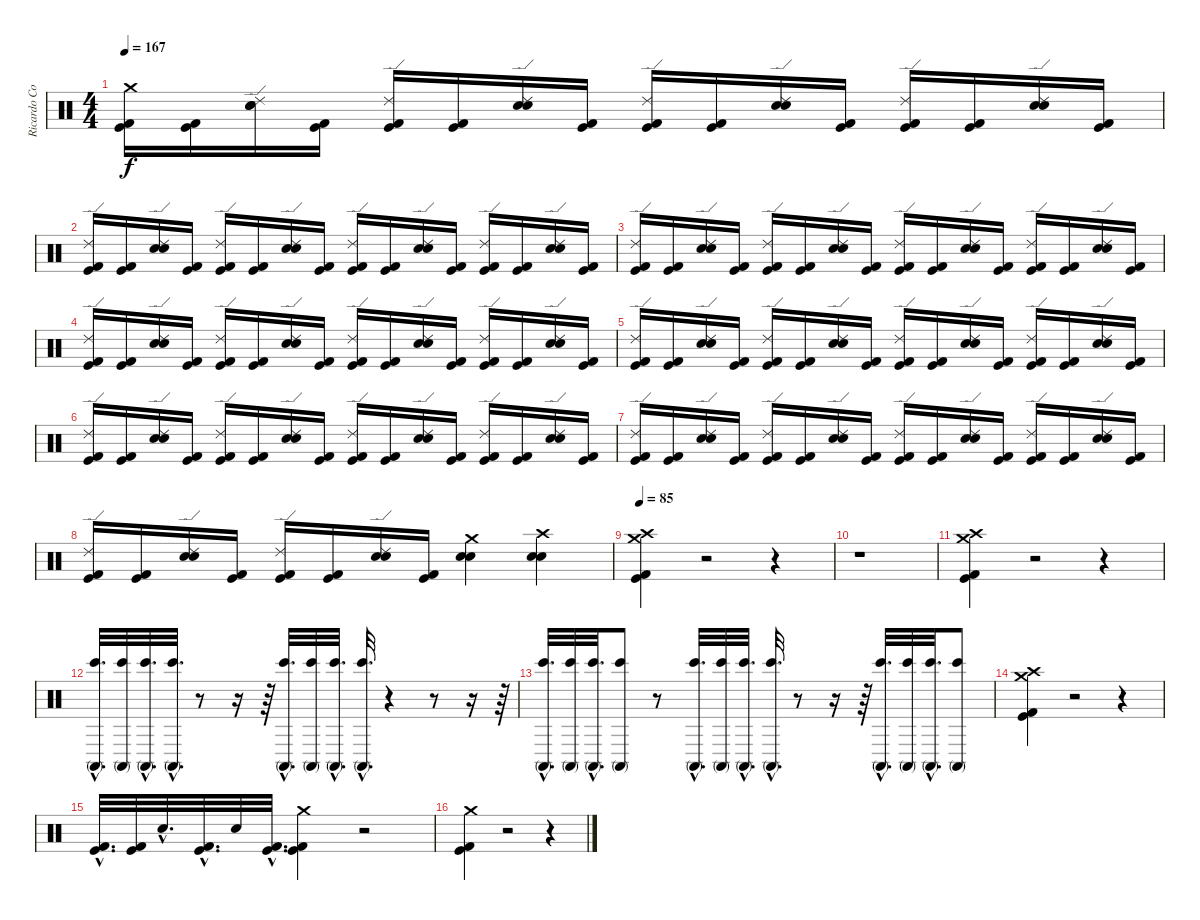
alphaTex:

\track ("Ricardo Confessori" "Ricardo Co") {instrument percussion}
\staff {score}
\articulation defaults
\ts (4 4)
\tempo 167
\clef neutral
\ks c
("Crash medium (hit)" "Kick (hit) 2" "Kick (hit)").16{dy f} ("Kick (hit) 2" "Kick (hit)").16 ("Electric Snare (hit)" "Snare (hit) 2" "Ride (edge) 2").16 ("Kick (hit) 2" "Kick (hit)").16 ("Ride (edge) 2" "Kick (hit) 2" "Kick (hit)").16 ("Kick (hit) 2" "Kick (hit)").16 ("Electric Snare (hit)" "Snare (hit) 2" "Ride (edge) 2").16 ("Kick (hit) 2" "Kick (hit)").16 ("Ride (edge) 2" "Kick (hit) 2" "Kick (hit)").16 ("Kick (hit) 2" "Kick (hit)").16 ("Electric Snare (hit)" "Snare (hit) 2" "Ride (edge) 2").16 ("Kick (hit) 2" "Kick (hit)").16 ("Ride (edge) 2" "Kick (hit) 2" "Kick (hit)").16 ("Kick (hit) 2" "Kick (hit)").16 ("Electric Snare (hit)" "Snare (hit) 2" "Ride (edge) 2").16 ("Kick (hit) 2" "Kick (hit)").16 |
("Ride (edge) 2" "Kick (hit) 2" "Kick (hit)").16 ("Kick (hit) 2" "Kick (hit)").16 ("Electric Snare (hit)" "Snare (hit) 2" "Ride (edge) 2").16 ("Kick (hit) 2" "Kick (hit)").16 ("Ride (edge) 2" "Kick (hit) 2" "Kick (hit)").16 ("Kick (hit) 2" "Kick (hit)").16 ("Electric Snare (hit)" "Snare (hit) 2" "Ride (edge) 2").16 ("Kick (hit) 2" "Kick (hit)").16 ("Ride (edge) 2" "Kick (hit) 2" "Kick (hit)").16 ("Kick (hit) 2" "Kick (hit)").16 ("Electric Snare (hit)" "Snare (hit) 2" "Ride (edge) 2").16 ("Kick (hit) 2" "Kick (hit)").16 ("Ride (edge) 2" "Kick (hit) 2" "Kick (hit)").16 ("Kick (hit) 2" "Kick (hit)").16 ("Electric Snare (hit)" "Snare (hit) 2" "Ride (edge) 2").16 ("Kick (hit) 2" "Kick (hit)").16 |
("Ride (edge) 2" "Kick (hit) 2" "Kick (hit)").16 ("Kick (hit) 2" "Kick (hit)").16 ("Electric Snare (hit)" "Snare (hit) 2" "Ride (edge) 2").16 ("Kick (hit) 2" "Kick (hit)").16 ("Ride (edge) 2" "Kick (hit) 2" "Kick (hit)").16 ("Kick (hit) 2" "Kick (hit)").16 ("Electric Snare (hit)" "Snare (hit) 2" "Ride (edge) 2").16 ("Kick (hit) 2" "Kick (hit)").16 ("Ride (edge) 2" "Kick (hit) 2" "Kick (hit)").16 ("Kick (hit) 2" "Kick (hit)").16 ("Electric Snare (hit)" "Snare (hit) 2" "Ride (edge) 2").16 ("Kick (hit) 2" "Kick (hit)").16 ("Ride (edge) 2" "Kick (hit) 2" "Kick (hit)").16 ("Kick (hit) 2" "Kick (hit)").16 ("Electric Snare (hit)" "Snare (hit) 2" "Ride (edge) 2").16 ("Kick (hit) 2" "Kick (hit)").16 |
("Ride (edge) 2" "Kick (hit) 2" "Kick (hit)").16 ("Kick (hit) 2" "Kick (hit)").16 ("Electric Snare (hit)" "Snare (hit) 2" "Ride (edge) 2").16 ("Kick (hit) 2" "Kick (hit)").16 ("Ride (edge) 2" "Kick (hit) 2" "Kick (hit)").16 ("Kick (hit) 2" "Kick (hit)").16 ("Electric Snare (hit)" "Snare (hit) 2" "Ride (edge) 2").16 ("Kick (hit) 2" "Kick (hit)").16 ("Ride (edge) 2" "Kick (hit) 2" "Kick (hit)").16 ("Kick (hit) 2" "Kick (hit)").16 ("Electric Snare (hit)" "Snare (hit) 2" "Ride (edge) 2").16 ("Kick (hit) 2" "Kick (hit)").16 ("Ride (edge) 2" "Kick (hit) 2" "Kick (hit)").16 ("Kick (hit) 2" "Kick (hit)").16 ("Electric Snare (hit)" "Snare (hit) 2" "Ride (edge) 2").16 ("Kick (hit) 2" "Kick (hit)").16 |
("Ride (edge) 2" "Kick (hit) 2" "Kick (hit)").16 ("Kick (hit) 2" "Kick (hit)").16 ("Electric Snare (hit)" "Snare (hit) 2" "Ride (edge) 2").16 ("Kick (hit) 2" "Kick (hit)").16 ("Ride (edge) 2" "Kick (hit) 2" "Kick (hit)").16 ("Kick (hit) 2" "Kick (hit)").16 ("Electric Snare (hit)" "Snare (hit) 2" "Ride (edge) 2").16 ("Kick (hit) 2" "Kick (hit)").16 ("Ride (edge) 2" "Kick (hit) 2" "Kick (hit)").16 ("Kick (hit) 2" "Kick (hit)").16 ("Electric Snare (hit)" "Snare (hit) 2" "Ride (edge) 2").16 ("Kick (hit) 2" "Kick (hit)").16 ("Ride (edge) 2" "Kick (hit) 2" "Kick (hit)").16 ("Kick (hit) 2" "Kick (hit)").16 ("Electric Snare (hit)" "Snare (hit) 2" "Ride (edge) 2").16 ("Kick (hit) 2" "Kick (hit)").16 |
("Ride (edge) 2" "Kick (hit) 2" "Kick (hit)").16 ("Kick (hit) 2" "Kick (hit)").16 ("Electric Snare (hit)" "Snare (hit) 2" "Ride (edge) 2").16 ("Kick (hit) 2" "Kick (hit)").16 ("Ride (edge) 2" "Kick (hit) 2" "Kick (hit)").16 ("Kick (hit) 2" "Kick (hit)").16 ("Electric Snare (hit)" "Snare (hit) 2" "Ride (edge) 2").16 ("Kick (hit) 2" "Kick (hit)").16 ("Ride (edge) 2" "Kick (hit) 2" "Kick (hit)").16 ("Kick (hit) 2" "Kick (hit)").16 ("Electric Snare (hit)" "Snare (hit) 2" "Ride (edge) 2").16 ("Kick (hit) 2" "Kick (hit)").16 ("Ride (edge) 2" "Kick (hit) 2" "Kick (hit)").16 ("Kick (hit) 2" "Kick (hit)").16 ("Electric Snare (hit)" "Snare (hit) 2" "Ride (edge) 2").16 ("Kick (hit) 2" "Kick (hit)").16 |
("Ride (edge) 2" "Kick (hit) 2" "Kick (hit)").16 ("Kick (hit) 2" "Kick (hit)").16 ("Electric Snare (hit)" "Snare (hit) 2" "Ride (edge) 2").16 ("Kick (hit) 2" "Kick (hit)").16 ("Ride (edge) 2" "Kick (hit) 2" "Kick (hit)").16 ("Kick (hit) 2" "Kick (hit)").16 ("Electric Snare (hit)" "Snare (hit) 2" "Ride (edge) 2").16 ("Kick (hit) 2" "Kick (hit)").16 ("Ride (edge) 2" "Kick (hit) 2" "Kick (hit)").16 ("Kick (hit) 2" "Kick (hit)").16 ("Electric Snare (hit)" "Snare (hit) 2" "Ride (edge) 2").16 ("Kick (hit) 2" "Kick (hit)").16 ("Ride (edge) 2" "Kick (hit) 2" "Kick (hit)").16 ("Kick (hit) 2" "Kick (hit)").16 ("Electric Snare (hit)" "Snare (hit) 2" "Ride (edge) 2").16 ("Kick (hit) 2" "Kick (hit)").16 |
("Ride (edge) 2" "Kick (hit) 2" "Kick (hit)").16 ("Kick (hit) 2" "Kick (hit)").16 ("Electric Snare (hit)" "Snare (hit) 2" "Ride (edge) 2").16 ("Kick (hit) 2" "Kick (hit)").16 ("Ride (edge) 2" "Kick (hit) 2" "Kick (hit)").16 ("Kick (hit) 2" "Kick (hit)").16 ("Electric Snare (hit)" "Snare (hit) 2" "Ride (edge) 2").16 ("Kick (hit) 2" "Kick (hit)").16 ("Crash medium (hit)" "Electric Snare (hit)" "Snare (hit) 2").4 ("Electric Snare (hit)" "Snare (hit) 2" "Crash high (hit)").4 |
\tempo 85
("Crash high (hit)" "Crash medium (hit)" "Kick (hit) 2" "Kick (hit)").4 r.2 r.4 |
r.1 |
("Crash medium (hit)" "Crash high (hit)" "Kick (hit)" "Kick (hit) 2").4 r.2 r.4 |
("Conga high (mute)"{hac} "Bongo High (hit)"{hac}).32{d} ("Conga high (mute)" "Bongo High (hit)").32 ("Conga high (mute)"{hac} "Bongo High (hit)"{hac}).32{d} ("Conga high (mute)"{hac} "Bongo High (hit)"{hac}).32{d} r.8 r.16 r.64 ("Conga high (mute)"{hac} "Bongo High (hit)"{hac}).32{d} ("Conga high (mute)" "Bongo High (hit)").32 ("Conga high (mute)"{hac} "Bongo High (hit)"{hac}).32{d} ("Conga high (mute)"{hac} "Bongo High (hit)"{hac}).32{d} r.4 r.8 r.16 r.64 |
("Bongo High (hit)"{hac} "Conga high (mute)"{hac}).32{d} ("Conga high (mute)" "Bongo High (hit)").32 ("Conga high (mute)"{hac} "Bongo High (hit)"{hac}).32{d} ("Conga high (mute)" "Bongo High (hit)").8 r.8 ("Conga high (mute)"{hac} "Bongo High (hit)"{hac}).32{d} ("Conga high (mute)" "Bongo High (hit)").32 ("Conga high (mute)"{hac} "Bongo High (hit)"{hac}).32{d} ("Conga high (mute)"{hac} "Bongo High (hit)"{hac}).32{d} r.8 r.16 r.64 ("Conga high (mute)"{hac} "Bongo High (hit)"{hac}).32{d} ("Conga high (mute)" "Bongo High (hit)").32 ("Conga high (mute)"{hac} "Bongo High (hit)"{hac}).32{d} ("Conga high (mute)" "Bongo High (hit)").8 |
("Crash medium (hit)" "Crash high (hit)" "Kick (hit) 2" "Kick (hit)").4 r.2 r.4 |
("Kick (hit) 2"{hac} "Kick (hit)"{hac}).32{d} ("Kick (hit) 2" "Kick (hit)").32 "Snare (hit)"{hac}.32{d} ("Kick (hit) 2"{hac} "Kick (hit)"{hac}).32{d} "Snare (hit)".32 ("Kick (hit) 2"{hac} "Kick (hit)"{hac}).32{d} ("Crash medium (hit)" "Kick (hit) 2" "Kick (hit)").4 r.2 |
("Crash medium (hit)" "Kick (hit) 2" "Kick (hit)").4 r.2 r.4
